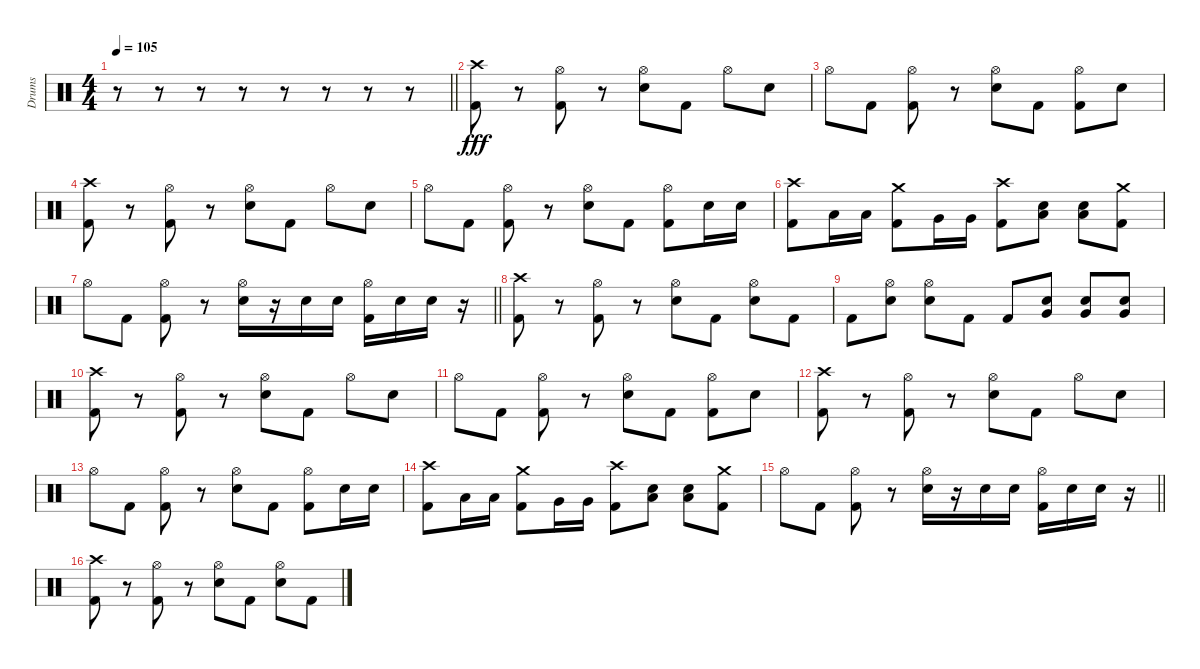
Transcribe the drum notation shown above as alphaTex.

\track ("Drums" "Drums") {instrument percussion}
\staff {score}
\articulation defaults
\ts (4 4)
\tempo 105
\clef neutral
\barLineRight lightlight
\ks c
r.8{dy fff} r.8 r.8 r.8 r.8 r.8 r.8 r.8 |
\section ("" "")
("Crash high (hit)" "Kick (hit) 2").8 r.8 ("Hi-Hat (open)" "Kick (hit) 2").8 r.8 ("Hi-Hat (open)" "Electric Snare (hit)").8 "Kick (hit) 2".8 "Hi-Hat (open)".8 "Electric Snare (hit)".8 |
"Hi-Hat (open)".8 "Kick (hit) 2".8 ("Hi-Hat (open)" "Kick (hit) 2").8 r.8 ("Hi-Hat (open)" "Electric Snare (hit)").8 "Kick (hit) 2".8 ("Hi-Hat (open)" "Kick (hit) 2").8 "Electric Snare (hit)".8 |
("Crash high (hit)" "Kick (hit) 2").8 r.8 ("Hi-Hat (open)" "Kick (hit) 2").8 r.8 ("Hi-Hat (open)" "Electric Snare (hit)").8 "Kick (hit) 2".8 "Hi-Hat (open)".8 "Electric Snare (hit)".8 |
"Hi-Hat (open)".8 "Kick (hit) 2".8 ("Hi-Hat (open)" "Kick (hit) 2").8 r.8 ("Hi-Hat (open)" "Electric Snare (hit)").8 "Kick (hit) 2".8 ("Hi-Hat (open)" "Kick (hit) 2").8 "Electric Snare (hit)".16 "Electric Snare (hit)".16 |
("Crash high (hit)" "Kick (hit) 2").8 "Low Tom (hit)".16 "Low Tom (hit)".16 ("Crash medium (hit)" "Kick (hit) 2").8 "Very Low Tom (hit)".16 "Very Low Tom (hit)".16 ("Crash high (hit)" "Kick (hit) 2").8 ("Electric Snare (hit)" "Low Floor Tom (hit)").8 ("Electric Snare (hit)" "Low Floor Tom (hit)").8 ("Crash medium (hit)" "Kick (hit) 2").8 |
\barLineRight lightlight "Hi-Hat (open)".8 "Kick (hit) 2".8
("Hi-Hat (open)" "Kick (hit) 2").8 r.8 ("Hi-Hat (open)" "Electric Snare (hit)").16 r.16 "Electric Snare (hit)".16 "Electric Snare (hit)".16 ("Hi-Hat (open)" "Kick (hit) 2").16 "Electric Snare (hit)".16 "Electric Snare (hit)".16 r.16 |
("Crash high (hit)" "Kick (hit) 2").8 r.8 ("Hi-Hat (open)" "Kick (hit) 2").8 r.8 ("Hi-Hat (open)" "Electric Snare (hit)").8 "Kick (hit) 2".8 ("Hi-Hat (open)" "Electric Snare (hit)").8 "Kick (hit) 2".8 |
"Kick (hit) 2".8 ("Hi-Hat (open)" "Electric Snare (hit)").8 ("Hi-Hat (open)" "Electric Snare (hit)").8 "Kick (hit) 2".8 "Kick (hit) 2".8 ("Very Low Tom (hit)" "Electric Snare (hit)").8 ("Very Low Tom (hit)" "Electric Snare (hit)").8 ("Very Low Tom (hit)" "Electric Snare (hit)").8 |
("Crash high (hit)" "Kick (hit) 2").8 r.8 ("Hi-Hat (open)" "Kick (hit) 2").8 r.8 ("Hi-Hat (open)" "Electric Snare (hit)").8 "Kick (hit) 2".8 "Hi-Hat (open)".8 "Electric Snare (hit)".8 |
"Hi-Hat (open)".8 "Kick (hit) 2".8 ("Hi-Hat (open)" "Kick (hit) 2").8 r.8 ("Hi-Hat (open)" "Electric Snare (hit)").8 "Kick (hit) 2".8 ("Hi-Hat (open)" "Kick (hit) 2").8 "Electric Snare (hit)".8 |
("Crash high (hit)" "Kick (hit) 2").8 r.8 ("Hi-Hat (open)" "Kick (hit) 2").8 r.8 ("Hi-Hat (open)" "Electric Snare (hit)").8 "Kick (hit) 2".8 "Hi-Hat (open)".8 "Electric Snare (hit)".8 |
"Hi-Hat (open)".8 "Kick (hit) 2".8 ("Hi-Hat (open)" "Kick (hit) 2").8 r.8 ("Hi-Hat (open)" "Electric Snare (hit)").8 "Kick (hit) 2".8 ("Hi-Hat (open)" "Kick (hit) 2").8 "Electric Snare (hit)".16 "Electric Snare (hit)".16 |
("Crash high (hit)" "Kick (hit) 2").8 "Low Tom (hit)".16 "Low Tom (hit)".16 ("Crash medium (hit)" "Kick (hit) 2").8 "Very Low Tom (hit)".16 "Very Low Tom (hit)".16 ("Crash high (hit)" "Kick (hit) 2").8 ("Electric Snare (hit)" "Low Floor Tom (hit)").8 ("Electric Snare (hit)" "Low Floor Tom (hit)").8 ("Crash medium (hit)" "Kick (hit) 2").8 |
\barLineRight lightlight "Hi-Hat (open)".8 "Kick (hit) 2".8
("Hi-Hat (open)" "Kick (hit) 2").8 r.8 ("Hi-Hat (open)" "Electric Snare (hit)").16 r.16 "Electric Snare (hit)".16 "Electric Snare (hit)".16 ("Hi-Hat (open)" "Kick (hit) 2").16 "Electric Snare (hit)".16 "Electric Snare (hit)".16 r.16 |
("Crash high (hit)" "Kick (hit) 2").8 r.8 ("Hi-Hat (open)" "Kick (hit) 2").8 r.8 ("Hi-Hat (open)" "Electric Snare (hit)").8 "Kick (hit) 2".8 ("Hi-Hat (open)" "Electric Snare (hit)").8 "Kick (hit) 2".8
